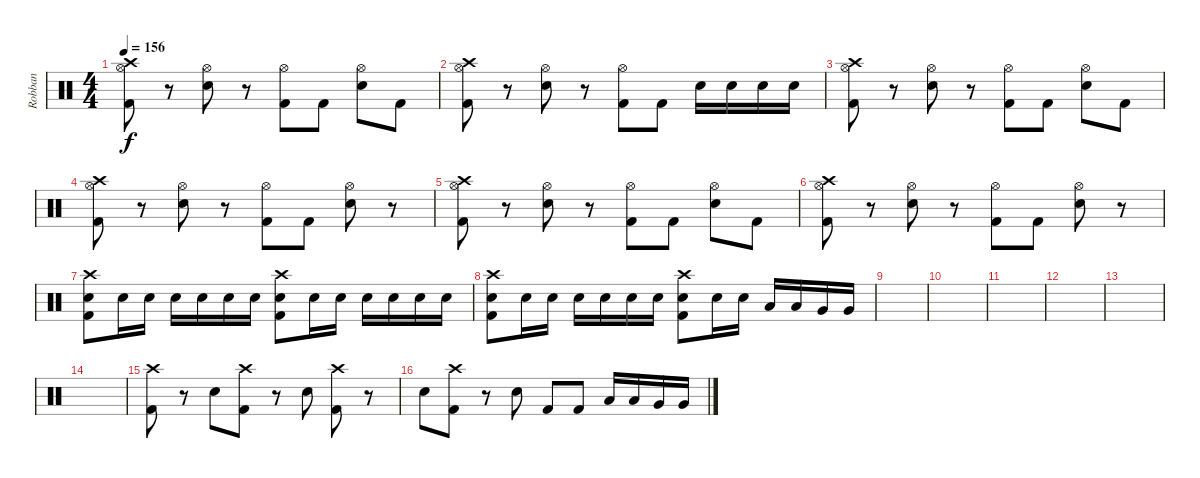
\track ("Robban" "Robban") {instrument percussion}
\staff {score}
\articulation defaults
\ts (4 4)
\tempo 156
\clef neutral
\ks c
("Crash high (hit)" "Hi-Hat (open)" "Kick (hit) 2").8{dy f} r.8 ("Hi-Hat (open)" "Electric Snare (hit)").8 r.8 ("Hi-Hat (open)" "Kick (hit) 2").8 "Kick (hit) 2".8 ("Hi-Hat (open)" "Electric Snare (hit)").8 "Kick (hit) 2".8 |
("Crash high (hit)" "Hi-Hat (open)" "Kick (hit) 2").8 r.8 ("Hi-Hat (open)" "Electric Snare (hit)").8 r.8 ("Hi-Hat (open)" "Kick (hit) 2").8 "Kick (hit) 2".8 "Electric Snare (hit)".16 "Electric Snare (hit)".16 "Electric Snare (hit)".16 "Electric Snare (hit)".16 |
("Crash high (hit)" "Hi-Hat (open)" "Kick (hit) 2").8 r.8 ("Hi-Hat (open)" "Electric Snare (hit)").8 r.8 ("Hi-Hat (open)" "Kick (hit) 2").8 "Kick (hit) 2".8 ("Hi-Hat (open)" "Electric Snare (hit)").8 "Kick (hit) 2".8 |
("Crash high (hit)" "Hi-Hat (open)" "Kick (hit) 2").8 r.8 ("Hi-Hat (open)" "Electric Snare (hit)").8 r.8 ("Hi-Hat (open)" "Kick (hit) 2").8 "Kick (hit) 2".8 ("Hi-Hat (open)" "Electric Snare (hit)").8 r.8 |
("Crash high (hit)" "Hi-Hat (open)" "Kick (hit) 2").8 r.8 ("Hi-Hat (open)" "Electric Snare (hit)").8 r.8 ("Hi-Hat (open)" "Kick (hit) 2").8 "Kick (hit) 2".8 ("Hi-Hat (open)" "Electric Snare (hit)").8 "Kick (hit) 2".8 |
("Crash high (hit)" "Hi-Hat (open)" "Kick (hit) 2").8 r.8 ("Hi-Hat (open)" "Electric Snare (hit)").8 r.8 ("Hi-Hat (open)" "Kick (hit) 2").8 "Kick (hit) 2".8 ("Hi-Hat (open)" "Electric Snare (hit)").8 r.8 |
("Crash high (hit)" "Electric Snare (hit)" "Kick (hit) 2").8 "Electric Snare (hit)".16 "Electric Snare (hit)".16 "Electric Snare (hit)".16 "Electric Snare (hit)".16 "Electric Snare (hit)".16 "Electric Snare (hit)".16 ("Crash high (hit)" "Electric Snare (hit)" "Kick (hit) 2").8 "Electric Snare (hit)".16 "Electric Snare (hit)".16 "Electric Snare (hit)".16 "Electric Snare (hit)".16 "Electric Snare (hit)".16 "Electric Snare (hit)".16 |
("Crash high (hit)" "Electric Snare (hit)" "Kick (hit) 2").8 "Electric Snare (hit)".16 "Electric Snare (hit)".16 "Electric Snare (hit)".16 "Electric Snare (hit)".16 "Electric Snare (hit)".16 "Electric Snare (hit)".16 ("Crash high (hit)" "Electric Snare (hit)" "Kick (hit) 2").8 "Electric Snare (hit)".16 "Electric Snare (hit)".16 "Low Tom (hit)".16 "Low Tom (hit)".16 "Very Low Tom (hit)".16 "Very Low Tom (hit)".16 |
|
|
|
|
|
|
("Crash high (hit)" "Kick (hit) 2").8 r.8 "Electric Snare (hit)".8 ("Crash high (hit)" "Kick (hit) 2").8 r.8 "Electric Snare (hit)".8 ("Crash high (hit)" "Kick (hit) 2").8 r.8 |
"Electric Snare (hit)".8 ("Crash high (hit)" "Kick (hit) 2").8 r.8 "Electric Snare (hit)".8 "Kick (hit) 2".8 "Kick (hit) 2".8 "Low Tom (hit)".16 "Low Tom (hit)".16 "Very Low Tom (hit)".16 "Very Low Tom (hit)".16
